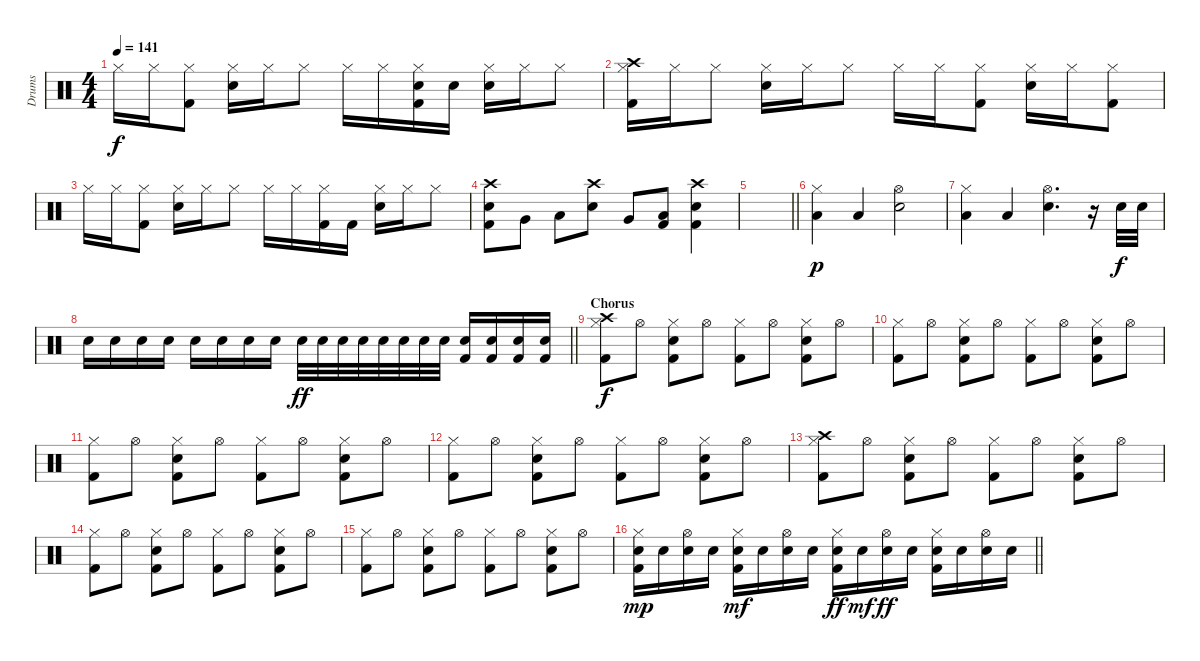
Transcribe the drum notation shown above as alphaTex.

\track ("Drums" "Drums") {instrument percussion}
\staff {score}
\articulation defaults
\ts (4 4)
\tempo 141
\clef neutral
\ks c "Hi-Hat (closed)".16{dy f} "Hi-Hat (closed)".16
("Hi-Hat (closed)" "Kick (hit) 2").8 ("Hi-Hat (closed)" "Snare (hit) 2").16 "Hi-Hat (closed)".16 "Hi-Hat (closed)".8 "Hi-Hat (closed)".16 "Hi-Hat (closed)".16 ("Hi-Hat (closed)" "Snare (hit) 2" "Kick (hit) 2").16 "Snare (hit) 2".16 ("Hi-Hat (closed)" "Snare (hit) 2").16 "Hi-Hat (closed)".16 "Hi-Hat (closed)".8 |
("Hi-Hat (closed)" "Crash high (hit)" "Kick (hit) 2").16 "Hi-Hat (closed)".16 "Hi-Hat (closed)".8 ("Hi-Hat (closed)" "Snare (hit) 2").16 "Hi-Hat (closed)".16 "Hi-Hat (closed)".8 "Hi-Hat (closed)".16 "Hi-Hat (closed)".16 ("Hi-Hat (closed)" "Kick (hit) 2").8 ("Hi-Hat (closed)" "Snare (hit) 2").16 "Hi-Hat (closed)".16 ("Hi-Hat (closed)" "Kick (hit) 2").8 |
"Hi-Hat (closed)".16 "Hi-Hat (closed)".16 ("Hi-Hat (closed)" "Kick (hit) 2").8 ("Hi-Hat (closed)" "Snare (hit) 2").16 "Hi-Hat (closed)".16 "Hi-Hat (closed)".8 "Hi-Hat (closed)".16 "Hi-Hat (closed)".16 ("Hi-Hat (closed)" "Kick (hit) 2").16 "Kick (hit) 2".16 ("Hi-Hat (closed)" "Snare (hit) 2").16 "Hi-Hat (closed)".16 "Hi-Hat (closed)".8 |
("Crash high (hit)" "Snare (hit) 2" "Kick (hit) 2").8 "Very Low Tom (hit)".8 "Low Floor Tom (hit)".8 ("Crash high (hit)" "Snare (hit) 2").8 "Very Low Tom (hit)".8 ("Low Floor Tom (hit)" "Kick (hit) 2").8 ("Crash high (hit)" "Snare (hit) 2" "Kick (hit) 2").4 |
\barLineRight lightlight
|
("Hi-Hat (closed)" "Low Floor Tom (hit)").4{dy p} "Low Floor Tom (hit)".4 ("Hi-Hat (open)" "Snare (hit) 2").2 |
("Hi-Hat (closed)" "Low Floor Tom (hit)").4 "Low Floor Tom (hit)".4 ("Hi-Hat (open)" "Snare (hit) 2").4{d} r.16 "Snare (hit) 2".32{dy f} "Snare (hit) 2".32 |
\barLineRight lightlight "Snare (hit) 2".16 "Snare (hit) 2".16 "Snare (hit) 2".16 "Snare (hit) 2".16 "Snare (hit) 2".16 "Snare (hit) 2".16 "Snare (hit) 2".16 "Snare (hit) 2".16 "Snare (hit) 2".32{dy ff} "Snare (hit) 2".32 "Snare (hit) 2".32 "Snare (hit) 2".32 "Snare (hit) 2".32 "Snare (hit) 2".32 "Snare (hit) 2".32 "Snare (hit) 2".32
("Snare (hit) 2" "Kick (hit) 2").16 ("Snare (hit) 2" "Kick (hit) 2").16 ("Snare (hit) 2" "Kick (hit) 2").16 ("Snare (hit) 2" "Kick (hit) 2").16 |
\section ("" "Chorus")
("Hi-Hat (closed)" "Crash high (hit)" "Kick (hit) 2").8{dy f} "Hi-Hat (open)".8 ("Hi-Hat (closed)" "Snare (hit) 2" "Kick (hit) 2").8 "Hi-Hat (open)".8 ("Hi-Hat (closed)" "Kick (hit) 2").8 "Hi-Hat (open)".8 ("Hi-Hat (closed)" "Snare (hit) 2" "Kick (hit) 2").8 "Hi-Hat (open)".8 |
("Hi-Hat (closed)" "Kick (hit) 2").8 "Hi-Hat (open)".8 ("Hi-Hat (closed)" "Snare (hit) 2" "Kick (hit) 2").8 "Hi-Hat (open)".8 ("Hi-Hat (closed)" "Kick (hit) 2").8 "Hi-Hat (open)".8 ("Hi-Hat (closed)" "Snare (hit) 2" "Kick (hit) 2").8 "Hi-Hat (open)".8 |
("Hi-Hat (closed)" "Kick (hit) 2").8 "Hi-Hat (open)".8 ("Hi-Hat (closed)" "Snare (hit) 2" "Kick (hit) 2").8 "Hi-Hat (open)".8 ("Hi-Hat (closed)" "Kick (hit) 2").8 "Hi-Hat (open)".8 ("Hi-Hat (closed)" "Snare (hit) 2" "Kick (hit) 2").8 "Hi-Hat (open)".8 |
("Hi-Hat (closed)" "Kick (hit) 2").8 "Hi-Hat (open)".8 ("Hi-Hat (closed)" "Snare (hit) 2" "Kick (hit) 2").8 "Hi-Hat (open)".8 ("Hi-Hat (closed)" "Kick (hit) 2").8 "Hi-Hat (open)".8 ("Hi-Hat (closed)" "Snare (hit) 2" "Kick (hit) 2").8 "Hi-Hat (open)".8 |
("Hi-Hat (closed)" "Crash high (hit)" "Kick (hit) 2").8 "Hi-Hat (open)".8 ("Hi-Hat (closed)" "Snare (hit) 2" "Kick (hit) 2").8 "Hi-Hat (open)".8 ("Hi-Hat (closed)" "Kick (hit) 2").8 "Hi-Hat (open)".8 ("Hi-Hat (closed)" "Snare (hit) 2" "Kick (hit) 2").8 "Hi-Hat (open)".8 |
("Hi-Hat (closed)" "Kick (hit) 2").8 "Hi-Hat (open)".8 ("Hi-Hat (closed)" "Snare (hit) 2" "Kick (hit) 2").8 "Hi-Hat (open)".8 ("Hi-Hat (closed)" "Kick (hit) 2").8 "Hi-Hat (open)".8 ("Hi-Hat (closed)" "Snare (hit) 2" "Kick (hit) 2").8 "Hi-Hat (open)".8 |
("Hi-Hat (closed)" "Kick (hit) 2").8 "Hi-Hat (open)".8 ("Hi-Hat (closed)" "Snare (hit) 2" "Kick (hit) 2").8 "Hi-Hat (open)".8 ("Hi-Hat (closed)" "Kick (hit) 2").8 "Hi-Hat (open)".8 ("Hi-Hat (closed)" "Snare (hit) 2" "Kick (hit) 2").8 "Hi-Hat (open)".8 |
\barLineRight lightlight
("Hi-Hat (closed)" "Snare (hit) 2" "Kick (hit) 2").16{dy mp} "Snare (hit) 2".16 ("Hi-Hat (open)" "Snare (hit) 2").16 "Snare (hit) 2".16 ("Hi-Hat (closed)" "Snare (hit) 2" "Kick (hit) 2").16{dy mf} "Snare (hit) 2".16 ("Hi-Hat (open)" "Snare (hit) 2").16 "Snare (hit) 2".16 ("Hi-Hat (closed)" "Snare (hit) 2" "Kick (hit) 2").16{dy ff} "Snare (hit) 2".16{dy mf} ("Hi-Hat (open)" "Snare (hit) 2").16{dy ff} "Snare (hit) 2".16 ("Hi-Hat (closed)" "Snare (hit) 2" "Kick (hit) 2").16 "Snare (hit) 2".16 ("Hi-Hat (open)" "Snare (hit) 2").16 "Snare (hit) 2".16
